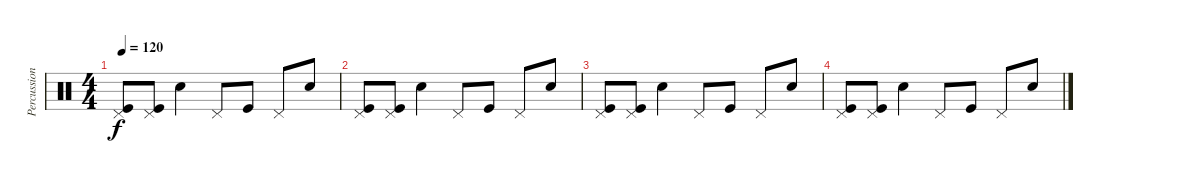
\track ("Percussion" "Percussion") {instrument percussion}
\staff {score}
\articulation defaults
\ts (4 4)
\tempo 120
\clef neutral
\ks c
("Kick (hit)" "Pedal Hi-Hat (hit)").8{dy f} ("Kick (hit)" "Pedal Hi-Hat (hit)").8 "Snare (hit) 2".4 "Pedal Hi-Hat (hit)".8 "Kick (hit)".8 "Pedal Hi-Hat (hit)".8 "Snare (hit) 2".8 |
("Kick (hit)" "Pedal Hi-Hat (hit)").8 ("Kick (hit)" "Pedal Hi-Hat (hit)").8 "Snare (hit) 2".4 "Pedal Hi-Hat (hit)".8 "Kick (hit)".8 "Pedal Hi-Hat (hit)".8 "Snare (hit) 2".8 |
("Kick (hit)" "Pedal Hi-Hat (hit)").8 ("Kick (hit)" "Pedal Hi-Hat (hit)").8 "Snare (hit) 2".4 "Pedal Hi-Hat (hit)".8 "Kick (hit)".8 "Pedal Hi-Hat (hit)".8 "Snare (hit) 2".8 |
("Kick (hit)" "Pedal Hi-Hat (hit)").8 ("Kick (hit)" "Pedal Hi-Hat (hit)").8 "Snare (hit) 2".4 "Pedal Hi-Hat (hit)".8 "Kick (hit)".8 "Pedal Hi-Hat (hit)".8 "Snare (hit) 2".8
